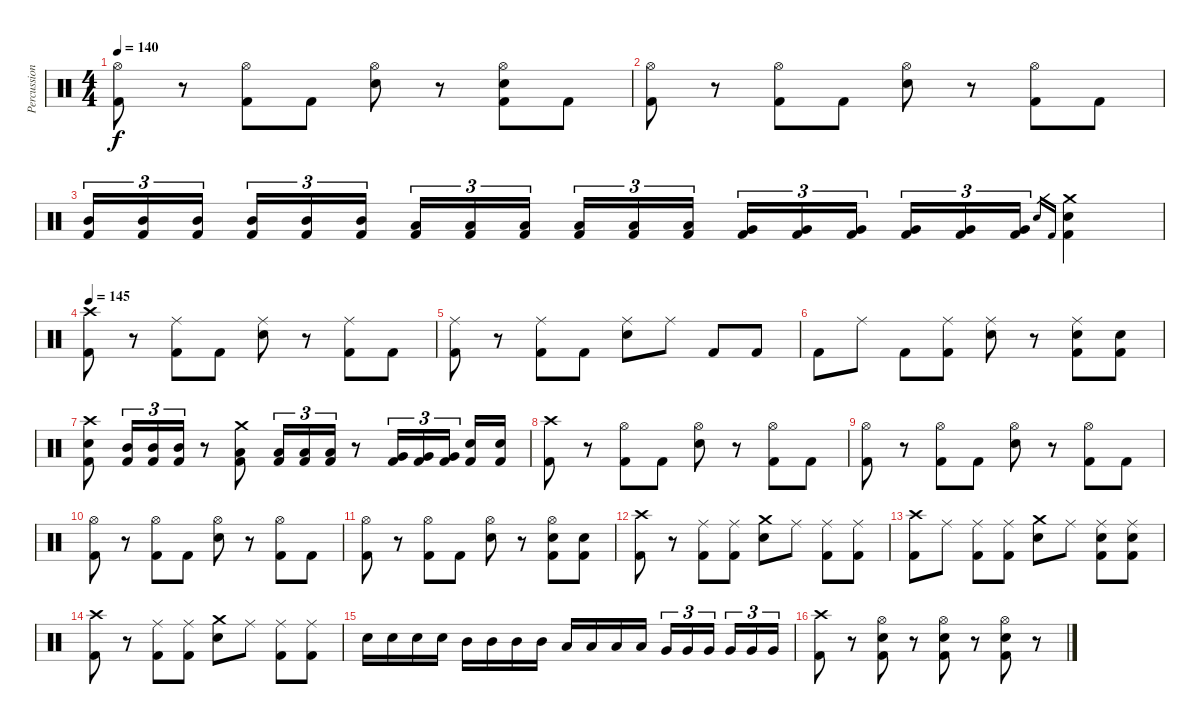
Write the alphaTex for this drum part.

\track ("Percussion" "Percussion") {instrument percussion}
\staff {score}
\articulation defaults
\ts (4 4)
\tempo 140
\clef neutral
\ks c
("Hi-Hat (open)" "Kick (hit) 2").8{dy f} r.8 ("Hi-Hat (open)" "Kick (hit) 2").8 "Kick (hit) 2".8 ("Hi-Hat (open)" "Snare (hit) 2").8 r.8 ("Hi-Hat (open)" "Snare (hit) 2" "Kick (hit) 2").8 "Kick (hit) 2".8 |
("Hi-Hat (open)" "Kick (hit) 2").8 r.8 ("Hi-Hat (open)" "Kick (hit) 2").8 "Kick (hit) 2".8 ("Hi-Hat (open)" "Snare (hit) 2").8 r.8 ("Hi-Hat (open)" "Kick (hit) 2").8 "Kick (hit) 2".8 |
("Mid Tom (hit)" "Kick (hit) 2").16{tu (3 2)} ("Mid Tom (hit)" "Kick (hit) 2").16{tu (3 2)} ("Mid Tom (hit)" "Kick (hit) 2").16{tu (3 2)} ("Mid Tom (hit)" "Kick (hit) 2").16{tu (3 2)} ("Mid Tom (hit)" "Kick (hit) 2").16{tu (3 2)} ("Mid Tom (hit)" "Kick (hit) 2").16{tu (3 2)} ("Low Tom (hit)" "Kick (hit) 2").16{tu (3 2)} ("Low Tom (hit)" "Kick (hit) 2").16{tu (3 2)} ("Low Tom (hit)" "Kick (hit) 2").16{tu (3 2)} ("Low Tom (hit)" "Kick (hit) 2").16{tu (3 2)} ("Low Tom (hit)" "Kick (hit) 2").16{tu (3 2)} ("Low Tom (hit)" "Kick (hit) 2").16{tu (3 2)} ("Very Low Tom (hit)" "Kick (hit) 2").16{tu (3 2)} ("Very Low Tom (hit)" "Kick (hit) 2").16{tu (3 2)} ("Very Low Tom (hit)" "Kick (hit) 2").16{tu (3 2)} ("Very Low Tom (hit)" "Kick (hit) 2").16{tu (3 2)} ("Very Low Tom (hit)" "Kick (hit) 2").16{tu (3 2)} ("Very Low Tom (hit)" "Kick (hit) 2").16{tu (3 2)} "Snare (hit) 2".16{gr} "Kick (hit) 2".16{gr} ("Crash medium (hit)" "Snare (hit) 2" "Kick (hit) 2").4 |
\tempo 145
("Crash high (hit)" "Kick (hit) 2").8 r.8 ("Ride (middle)" "Kick (hit) 2").8 "Kick (hit) 2".8 ("Ride (middle)" "Snare (hit) 2").8 r.8 ("Ride (middle)" "Kick (hit) 2").8 "Kick (hit) 2".8 |
("Ride (middle)" "Kick (hit) 2").8 r.8 ("Ride (middle)" "Kick (hit) 2").8 "Kick (hit) 2".8 ("Ride (middle)" "Snare (hit) 2").8 "Ride (middle)".8 "Kick (hit) 2".8 "Kick (hit) 2".8 |
"Kick (hit) 2".8 "Ride (middle)".8 "Kick (hit) 2".8 ("Ride (middle)" "Kick (hit) 2").8 ("Ride (middle)" "Snare (hit) 2").8 r.8 ("Ride (middle)" "Snare (hit) 2" "Kick (hit) 2").8 ("Snare (hit) 2" "Kick (hit) 2").8 |
("Crash high (hit)" "Snare (hit) 2" "Kick (hit) 2").8 ("Mid Tom (hit)" "Kick (hit) 2").16{tu (3 2)} ("Mid Tom (hit)" "Kick (hit) 2").16{tu (3 2)} ("Mid Tom (hit)" "Kick (hit) 2").16{tu (3 2)} r.8 ("Crash medium (hit)" "Low Tom (hit)" "Kick (hit) 2").8 ("Low Tom (hit)" "Kick (hit) 2").16{tu (3 2)} ("Low Tom (hit)" "Kick (hit) 2").16{tu (3 2)} ("Low Tom (hit)" "Kick (hit) 2").16{tu (3 2)} r.8 ("Very Low Tom (hit)" "Kick (hit) 2").16{tu (3 2)} ("Very Low Tom (hit)" "Kick (hit) 2").16{tu (3 2)} ("Very Low Tom (hit)" "Kick (hit) 2").16{tu (3 2)} ("Snare (hit) 2" "Kick (hit) 2").16 ("Snare (hit) 2" "Kick (hit) 2").16 |
("Crash high (hit)" "Kick (hit) 2").8 r.8 ("Hi-Hat (open)" "Kick (hit) 2").8 "Kick (hit) 2".8 ("Hi-Hat (open)" "Snare (hit) 2").8 r.8 ("Hi-Hat (open)" "Kick (hit) 2").8 "Kick (hit) 2".8 |
("Hi-Hat (open)" "Kick (hit) 2").8 r.8 ("Hi-Hat (open)" "Kick (hit) 2").8 "Kick (hit) 2".8 ("Hi-Hat (open)" "Snare (hit) 2").8 r.8 ("Hi-Hat (open)" "Kick (hit) 2").8 "Kick (hit) 2".8 |
("Hi-Hat (open)" "Kick (hit) 2").8 r.8 ("Hi-Hat (open)" "Kick (hit) 2").8 "Kick (hit) 2".8 ("Hi-Hat (open)" "Snare (hit) 2").8 r.8 ("Hi-Hat (open)" "Kick (hit) 2").8 "Kick (hit) 2".8 |
("Hi-Hat (open)" "Kick (hit) 2").8 r.8 ("Hi-Hat (open)" "Kick (hit) 2").8 "Kick (hit) 2".8 ("Hi-Hat (open)" "Snare (hit) 2").8 r.8 ("Hi-Hat (open)" "Snare (hit) 2" "Kick (hit) 2").8 ("Snare (hit) 2" "Kick (hit) 2").8 |
("Crash high (hit)" "Kick (hit) 2").8 r.8 ("Ride (middle)" "Kick (hit) 2").8 ("Ride (middle)" "Kick (hit) 2").8 ("Crash medium (hit)" "Snare (hit) 2").8 "Ride (middle)".8 ("Ride (middle)" "Kick (hit) 2").8 ("Ride (middle)" "Kick (hit) 2").8 |
("Crash high (hit)" "Kick (hit) 2").8 "Ride (middle)".8 ("Ride (middle)" "Kick (hit) 2").8 ("Ride (middle)" "Kick (hit) 2").8 ("Crash medium (hit)" "Snare (hit) 2").8 "Ride (middle)".8 ("Ride (middle)" "Snare (hit) 2" "Kick (hit) 2").8 ("Ride (middle)" "Snare (hit) 2" "Kick (hit) 2").8 |
("Crash high (hit)" "Kick (hit) 2").8 r.8 ("Ride (middle)" "Kick (hit) 2").8 ("Ride (middle)" "Kick (hit) 2").8 ("Crash medium (hit)" "Snare (hit) 2").8 "Ride (middle)".8 ("Ride (middle)" "Kick (hit) 2").8 ("Ride (middle)" "Kick (hit) 2").8 |
"Snare (hit) 2".16 "Snare (hit) 2".16 "Snare (hit) 2".16 "Snare (hit) 2".16 "Mid Tom (hit)".16 "Mid Tom (hit)".16 "Mid Tom (hit)".16 "Mid Tom (hit)".16 "Low Tom (hit)".16 "Low Tom (hit)".16 "Low Tom (hit)".16 "Low Tom (hit)".16 "Very Low Tom (hit)".16{tu (3 2)} "Very Low Tom (hit)".16{tu (3 2)} "Very Low Tom (hit)".16{tu (3 2)} "Very Low Tom (hit)".16{tu (3 2)} "Very Low Tom (hit)".16{tu (3 2)} "Very Low Tom (hit)".16{tu (3 2)} |
("Crash high (hit)" "Kick (hit) 2").8 r.8 ("Hi-Hat (open)" "Snare (hit) 2" "Kick (hit) 2").8 r.8 ("Hi-Hat (open)" "Snare (hit) 2" "Kick (hit) 2").8 r.8 ("Hi-Hat (open)" "Snare (hit) 2" "Kick (hit) 2").8 r.8
